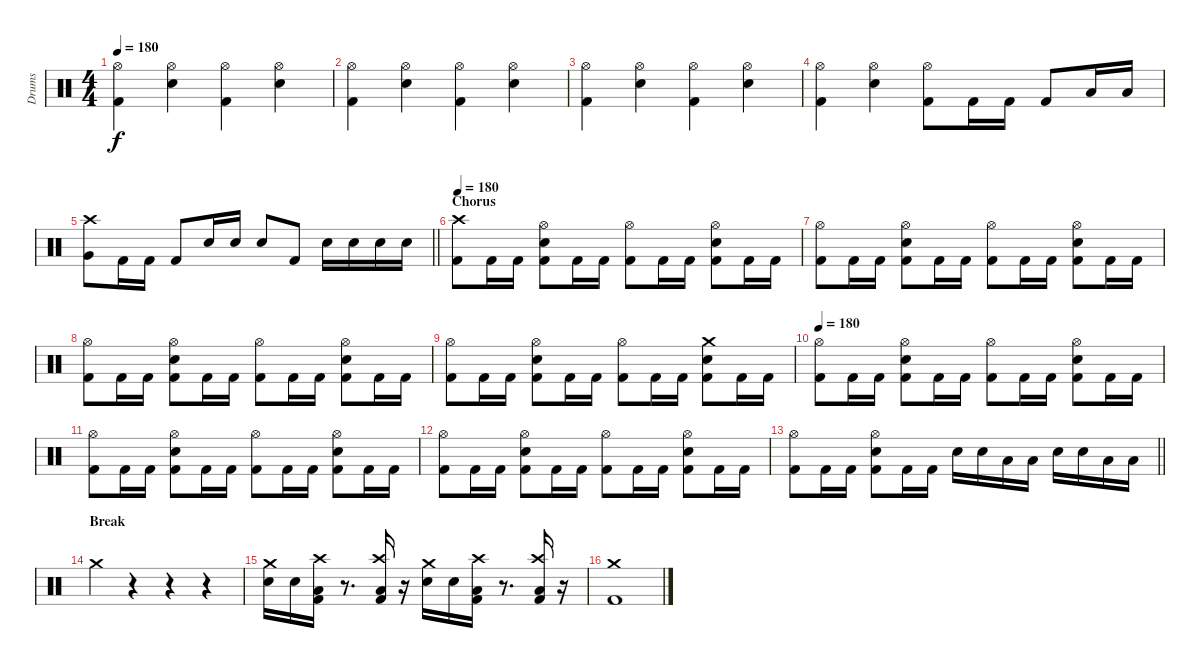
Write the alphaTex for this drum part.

\track ("Drums" "Drums") {instrument percussion}
\staff {score}
\articulation defaults
\ts (4 4)
\tempo 180
\clef neutral
\ks c
("Hi-Hat (open)" "Kick (hit) 2").4{dy f} ("Hi-Hat (open)" "Electric Snare (hit)").4 ("Hi-Hat (open)" "Kick (hit) 2").4 ("Hi-Hat (open)" "Electric Snare (hit)").4 |
("Hi-Hat (open)" "Kick (hit) 2").4 ("Hi-Hat (open)" "Electric Snare (hit)").4 ("Hi-Hat (open)" "Kick (hit) 2").4 ("Hi-Hat (open)" "Electric Snare (hit)").4 |
("Hi-Hat (open)" "Kick (hit) 2").4 ("Hi-Hat (open)" "Electric Snare (hit)").4 ("Hi-Hat (open)" "Kick (hit) 2").4 ("Hi-Hat (open)" "Electric Snare (hit)").4 |
("Hi-Hat (open)" "Kick (hit) 2").4 ("Hi-Hat (open)" "Electric Snare (hit)").4 ("Hi-Hat (open)" "Kick (hit) 2").8 "Kick (hit) 2".16 "Kick (hit) 2".16 "Kick (hit) 2".8 "Low Tom (hit)".16 "Low Tom (hit)".16 |
\barLineRight lightlight
("Crash high (hit)" "Very Low Tom (hit)").8 "Kick (hit) 2".16 "Kick (hit) 2".16 "Kick (hit) 2".8 "Electric Snare (hit)".16 "Electric Snare (hit)".16 "Electric Snare (hit)".8 "Kick (hit) 2".8 "Electric Snare (hit)".16 "Electric Snare (hit)".16 "Electric Snare (hit)".16 "Electric Snare (hit)".16 |
\section ("" "Chorus")
\tempo 180
("Crash high (hit)" "Kick (hit) 2").8 "Kick (hit) 2".16 "Kick (hit) 2".16 ("Hi-Hat (open)" "Electric Snare (hit)" "Kick (hit) 2").8 "Kick (hit) 2".16 "Kick (hit) 2".16 ("Hi-Hat (open)" "Kick (hit) 2").8 "Kick (hit) 2".16 "Kick (hit) 2".16 ("Hi-Hat (open)" "Electric Snare (hit)" "Kick (hit) 2").8 "Kick (hit) 2".16 "Kick (hit) 2".16 |
("Hi-Hat (open)" "Kick (hit) 2").8 "Kick (hit) 2".16 "Kick (hit) 2".16 ("Hi-Hat (open)" "Electric Snare (hit)" "Kick (hit) 2").8 "Kick (hit) 2".16 "Kick (hit) 2".16 ("Hi-Hat (open)" "Kick (hit) 2").8 "Kick (hit) 2".16 "Kick (hit) 2".16 ("Hi-Hat (open)" "Electric Snare (hit)" "Kick (hit) 2").8 "Kick (hit) 2".16 "Kick (hit) 2".16 |
("Hi-Hat (open)" "Kick (hit) 2").8 "Kick (hit) 2".16 "Kick (hit) 2".16 ("Hi-Hat (open)" "Electric Snare (hit)" "Kick (hit) 2").8 "Kick (hit) 2".16 "Kick (hit) 2".16 ("Hi-Hat (open)" "Kick (hit) 2").8 "Kick (hit) 2".16 "Kick (hit) 2".16 ("Hi-Hat (open)" "Electric Snare (hit)" "Kick (hit) 2").8 "Kick (hit) 2".16 "Kick (hit) 2".16 |
("Hi-Hat (open)" "Kick (hit) 2").8 "Kick (hit) 2".16 "Kick (hit) 2".16 ("Hi-Hat (open)" "Electric Snare (hit)" "Kick (hit) 2").8 "Kick (hit) 2".16 "Kick (hit) 2".16 ("Hi-Hat (open)" "Kick (hit) 2").8 "Kick (hit) 2".16 "Kick (hit) 2".16 ("Crash medium (hit)" "Electric Snare (hit)" "Kick (hit) 2").8 "Kick (hit) 2".16 "Kick (hit) 2".16 |
\tempo 180
("Hi-Hat (open)" "Kick (hit) 2").8 "Kick (hit) 2".16 "Kick (hit) 2".16 ("Hi-Hat (open)" "Electric Snare (hit)" "Kick (hit) 2").8 "Kick (hit) 2".16 "Kick (hit) 2".16 ("Hi-Hat (open)" "Kick (hit) 2").8 "Kick (hit) 2".16 "Kick (hit) 2".16 ("Hi-Hat (open)" "Electric Snare (hit)" "Kick (hit) 2").8 "Kick (hit) 2".16 "Kick (hit) 2".16 |
("Hi-Hat (open)" "Kick (hit) 2").8 "Kick (hit) 2".16 "Kick (hit) 2".16 ("Hi-Hat (open)" "Electric Snare (hit)" "Kick (hit) 2").8 "Kick (hit) 2".16 "Kick (hit) 2".16 ("Hi-Hat (open)" "Kick (hit) 2").8 "Kick (hit) 2".16 "Kick (hit) 2".16 ("Hi-Hat (open)" "Electric Snare (hit)" "Kick (hit) 2").8 "Kick (hit) 2".16 "Kick (hit) 2".16 |
("Hi-Hat (open)" "Kick (hit) 2").8 "Kick (hit) 2".16 "Kick (hit) 2".16 ("Hi-Hat (open)" "Electric Snare (hit)" "Kick (hit) 2").8 "Kick (hit) 2".16 "Kick (hit) 2".16 ("Hi-Hat (open)" "Kick (hit) 2").8 "Kick (hit) 2".16 "Kick (hit) 2".16 ("Hi-Hat (open)" "Electric Snare (hit)" "Kick (hit) 2").8 "Kick (hit) 2".16 "Kick (hit) 2".16 |
\barLineRight lightlight
("Hi-Hat (open)" "Kick (hit) 2").8 "Kick (hit) 2".16 "Kick (hit) 2".16 ("Hi-Hat (open)" "Electric Snare (hit)" "Kick (hit) 2").8 "Kick (hit) 2".16 "Kick (hit) 2".16 "Electric Snare (hit)".16 "Electric Snare (hit)".16 "Low Tom (hit)".16 "Low Tom (hit)".16 "Electric Snare (hit)".16 "Electric Snare (hit)".16 "Low Tom (hit)".16 "Low Tom (hit)".16 |
\section ("" "Break")
"Crash medium (hit)".4 r.4 r.4 r.4 |
("Crash medium (hit)" "Electric Snare (hit)").16 "Electric Snare (hit)".16 ("Crash high (hit)" "Low Floor Tom (hit)" "Kick (hit) 2").16 r.8{d} ("Crash high (hit)" "Low Floor Tom (hit)" "Kick (hit) 2").16 r.16 ("Crash medium (hit)" "Electric Snare (hit)").16 "Electric Snare (hit)".16 ("Crash high (hit)" "Low Floor Tom (hit)" "Kick (hit) 2").16 r.8{d} ("Crash high (hit)" "Low Floor Tom (hit)" "Kick (hit) 2").16 r.16 |
("Crash medium (hit)" "Kick (hit) 2").1
